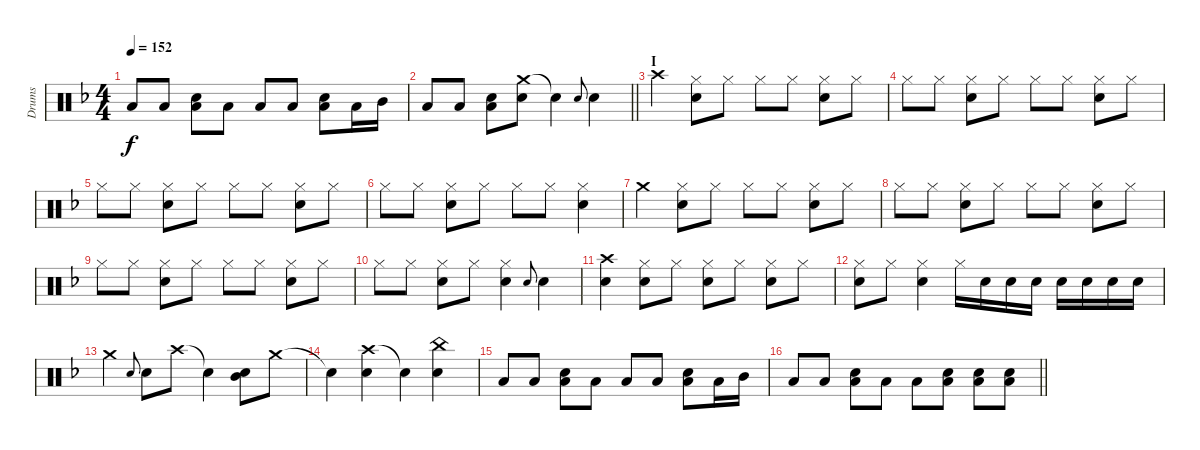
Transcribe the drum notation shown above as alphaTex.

\track ("Drums" "Drums") {instrument percussion}
\staff {score}
\articulation defaults
\ts (4 4)
\tempo 152
\clef neutral
\ks f "Low Tom (hit)".8{dy f} "Low Tom (hit)".8
("Snare (hit) 2" "Low Tom (hit)").8 "Low Tom (hit)".8 "Low Tom (hit)".8 "Low Tom (hit)".8 ("Snare (hit) 2" "Low Tom (hit)").8 "Low Tom (hit)".16 "Mid Tom (hit)".16 |
\barLineRight lightlight "Low Tom (hit)".8 "Low Tom (hit)".8
("Snare (hit) 2" "Low Tom (hit)").8 ("Crash medium (hit)" "Snare (hit) 2").8 "Snare (hit)"{t}.4 "Snare (hit) 2".8{gr onbeat} "Snare (hit) 2".4 |
\section ("" "I")
"Crash high (hit)".4 ("Hi-Hat (closed)" "Snare (hit) 2").8 "Hi-Hat (closed)".8 "Hi-Hat (closed)".8 "Hi-Hat (closed)".8 ("Hi-Hat (closed)" "Snare (hit) 2").8 "Hi-Hat (closed)".8 |
"Hi-Hat (closed)".8 "Hi-Hat (closed)".8 ("Hi-Hat (closed)" "Snare (hit) 2").8 "Hi-Hat (closed)".8 "Hi-Hat (closed)".8 "Hi-Hat (closed)".8 ("Hi-Hat (closed)" "Snare (hit) 2").8 "Hi-Hat (closed)".8 |
"Hi-Hat (closed)".8 "Hi-Hat (closed)".8 ("Hi-Hat (closed)" "Snare (hit) 2").8 "Hi-Hat (closed)".8 "Hi-Hat (closed)".8 "Hi-Hat (closed)".8 ("Hi-Hat (closed)" "Snare (hit) 2").8 "Hi-Hat (closed)".8 |
"Hi-Hat (closed)".8 "Hi-Hat (closed)".8 ("Hi-Hat (closed)" "Snare (hit) 2").8 "Hi-Hat (closed)".8 "Hi-Hat (closed)".8 "Hi-Hat (closed)".8 ("Hi-Hat (closed)" "Snare (hit) 2").4 |
"Crash medium (hit)".4 ("Hi-Hat (closed)" "Snare (hit) 2").8 "Hi-Hat (closed)".8 "Hi-Hat (closed)".8 "Hi-Hat (closed)".8 ("Hi-Hat (closed)" "Snare (hit) 2").8 "Hi-Hat (closed)".8 |
"Hi-Hat (closed)".8 "Hi-Hat (closed)".8 ("Hi-Hat (closed)" "Snare (hit) 2").8 "Hi-Hat (closed)".8 "Hi-Hat (closed)".8 "Hi-Hat (closed)".8 ("Hi-Hat (closed)" "Snare (hit) 2").8 "Hi-Hat (closed)".8 |
"Hi-Hat (closed)".8 "Hi-Hat (closed)".8 ("Hi-Hat (closed)" "Snare (hit) 2").8 "Hi-Hat (closed)".8 "Hi-Hat (closed)".8 "Hi-Hat (closed)".8 ("Hi-Hat (closed)" "Snare (hit) 2").8 "Hi-Hat (closed)".8 |
"Hi-Hat (closed)".8 "Hi-Hat (closed)".8 ("Hi-Hat (closed)" "Snare (hit) 2").8 "Hi-Hat (closed)".8 ("Hi-Hat (closed)" "Snare (hit) 2").4 "Snare (hit) 2".8{gr onbeat} "Snare (hit) 2".4 |
("Crash high (hit)" "Snare (hit) 2").4 ("Hi-Hat (closed)" "Snare (hit) 2").8 "Hi-Hat (closed)".8 ("Hi-Hat (closed)" "Snare (hit) 2").8 "Hi-Hat (closed)".8 ("Hi-Hat (closed)" "Snare (hit) 2").8 "Hi-Hat (closed)".8 |
("Hi-Hat (closed)" "Snare (hit) 2").8 "Hi-Hat (closed)".8 ("Hi-Hat (closed)" "Snare (hit) 2").4 "Hi-Hat (closed)".16 "Snare (hit) 2".16 "Snare (hit) 2".16 "Snare (hit) 2".16 "Snare (hit) 2".16 "Snare (hit) 2".16 "Snare (hit) 2".16 "Snare (hit) 2".16 |
"Crash medium (hit)".4 "Snare (hit) 2".8{gr onbeat} "Snare (hit) 2".8 "Crash high (hit)".8 "Snare (hit)"{t}.4 ("Mid Tom (hit)" "Snare (hit) 2").8 "Crash medium (hit)".8 |
"Snare (hit)"{t}.4 ("Crash high (hit)" "Snare (hit) 2").4 "Snare (hit)"{t}.4 ("China (hit)" "Snare (hit) 2").4 |
"Low Tom (hit)".8 "Low Tom (hit)".8 ("Snare (hit) 2" "Low Tom (hit)").8 "Low Tom (hit)".8 "Low Tom (hit)".8 "Low Tom (hit)".8 ("Snare (hit) 2" "Low Tom (hit)").8 "Low Tom (hit)".16 "Mid Tom (hit)".16 |
\barLineRight lightlight "Low Tom (hit)".8 "Low Tom (hit)".8
("Snare (hit) 2" "Low Tom (hit)").8 "Low Tom (hit)".8 "Low Tom (hit)".8 ("Snare (hit) 2" "Low Tom (hit)").8 ("Snare (hit) 2" "Low Tom (hit)").8 ("Snare (hit) 2" "Low Tom (hit)").8
